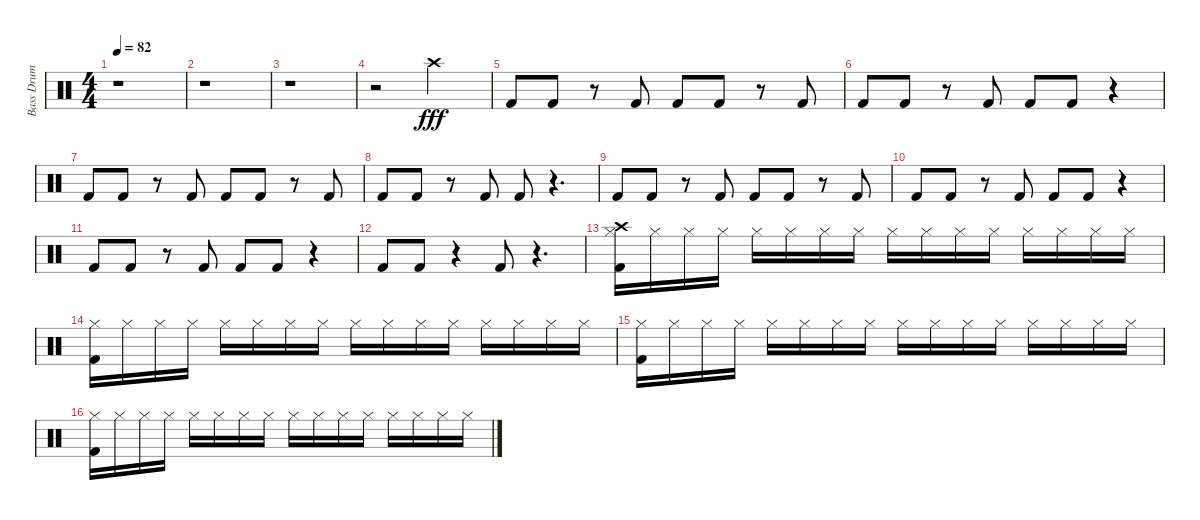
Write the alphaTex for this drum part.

\track ("Bass Drum" "Bass Drum") {instrument percussion}
\staff {score}
\articulation defaults
\ts (4 4)
\tempo 82
\clef neutral
\ks c
r.1{dy fff} |
r.1 |
r.1 |
r.2 "Crash high (hit)".2 |
"Kick (hit) 2".8 "Kick (hit) 2".8 r.8 "Kick (hit) 2".8 "Kick (hit) 2".8 "Kick (hit) 2".8 r.8 "Kick (hit) 2".8 |
"Kick (hit) 2".8 "Kick (hit) 2".8 r.8 "Kick (hit) 2".8 "Kick (hit) 2".8 "Kick (hit) 2".8 r.4 |
"Kick (hit) 2".8 "Kick (hit) 2".8 r.8 "Kick (hit) 2".8 "Kick (hit) 2".8 "Kick (hit) 2".8 r.8 "Kick (hit) 2".8 |
"Kick (hit) 2".8 "Kick (hit) 2".8 r.8 "Kick (hit) 2".8 "Kick (hit) 2".8 r.4{d} |
"Kick (hit) 2".8 "Kick (hit) 2".8 r.8 "Kick (hit) 2".8 "Kick (hit) 2".8 "Kick (hit) 2".8 r.8 "Kick (hit) 2".8 |
"Kick (hit) 2".8 "Kick (hit) 2".8 r.8 "Kick (hit) 2".8 "Kick (hit) 2".8 "Kick (hit) 2".8 r.4 |
"Kick (hit) 2".8 "Kick (hit) 2".8 r.8 "Kick (hit) 2".8 "Kick (hit) 2".8 "Kick (hit) 2".8 r.4 |
"Kick (hit) 2".8 "Kick (hit) 2".8 r.4 "Kick (hit) 2".8 r.4{d} |
("Kick (hit) 2" "Hi-Hat (closed)" "Crash high (hit)").16 "Hi-Hat (closed)".16 "Hi-Hat (closed)".16 "Hi-Hat (closed)".16 "Hi-Hat (closed)".16 "Hi-Hat (closed)".16 "Hi-Hat (closed)".16 "Hi-Hat (closed)".16 "Hi-Hat (closed)".16 "Hi-Hat (closed)".16 "Hi-Hat (closed)".16 "Hi-Hat (closed)".16 "Hi-Hat (closed)".16 "Hi-Hat (closed)".16 "Hi-Hat (closed)".16 "Hi-Hat (closed)".16 |
("Kick (hit) 2" "Hi-Hat (closed)").16 "Hi-Hat (closed)".16 "Hi-Hat (closed)".16 "Hi-Hat (closed)".16 "Hi-Hat (closed)".16 "Hi-Hat (closed)".16 "Hi-Hat (closed)".16 "Hi-Hat (closed)".16 "Hi-Hat (closed)".16 "Hi-Hat (closed)".16 "Hi-Hat (closed)".16 "Hi-Hat (closed)".16 "Hi-Hat (closed)".16 "Hi-Hat (closed)".16 "Hi-Hat (closed)".16 "Hi-Hat (closed)".16 |
("Kick (hit) 2" "Hi-Hat (closed)").16 "Hi-Hat (closed)".16 "Hi-Hat (closed)".16 "Hi-Hat (closed)".16 "Hi-Hat (closed)".16 "Hi-Hat (closed)".16 "Hi-Hat (closed)".16 "Hi-Hat (closed)".16 "Hi-Hat (closed)".16 "Hi-Hat (closed)".16 "Hi-Hat (closed)".16 "Hi-Hat (closed)".16 "Hi-Hat (closed)".16 "Hi-Hat (closed)".16 "Hi-Hat (closed)".16 "Hi-Hat (closed)".16 |
("Kick (hit) 2" "Hi-Hat (closed)").16 "Hi-Hat (closed)".16 "Hi-Hat (closed)".16 "Hi-Hat (closed)".16 "Hi-Hat (closed)".16 "Hi-Hat (closed)".16 "Hi-Hat (closed)".16 "Hi-Hat (closed)".16 "Hi-Hat (closed)".16 "Hi-Hat (closed)".16 "Hi-Hat (closed)".16 "Hi-Hat (closed)".16 "Hi-Hat (closed)".16 "Hi-Hat (closed)".16 "Hi-Hat (closed)".16 "Hi-Hat (closed)".16
